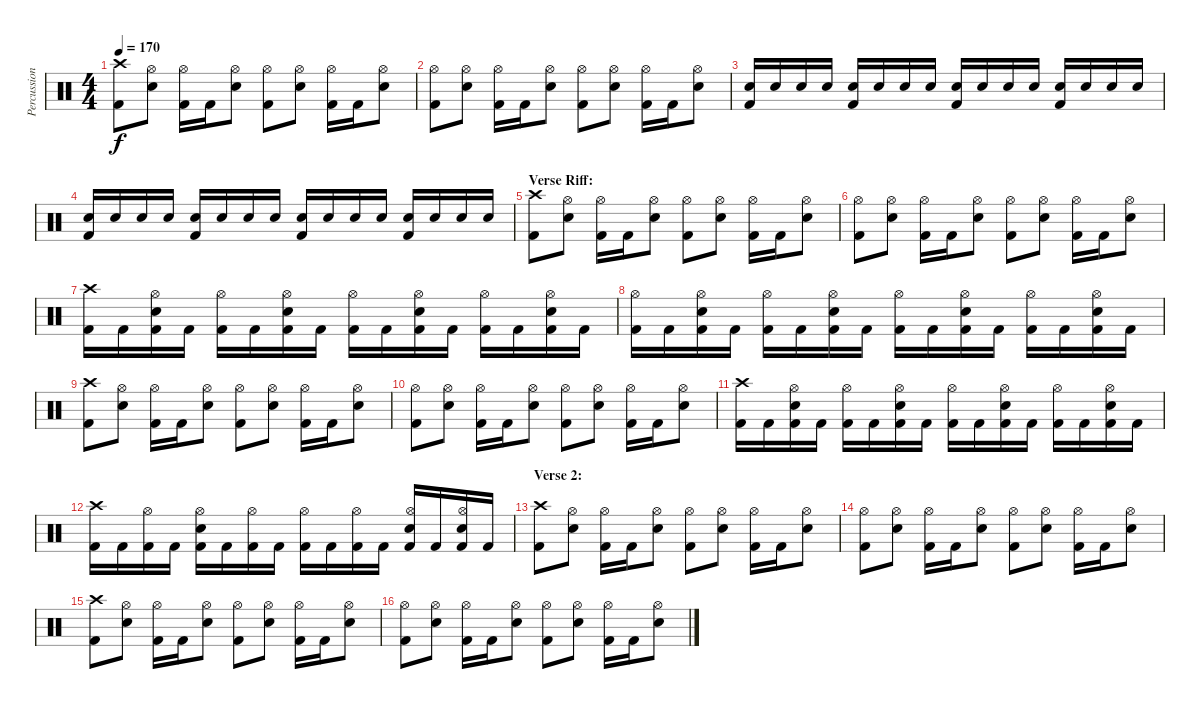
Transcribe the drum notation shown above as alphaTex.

\track ("Percussion" "Percussion") {instrument percussion}
\staff {score}
\articulation defaults
\ts (4 4)
\tempo 170
\clef neutral
\ks c
("Crash high (hit)" "Kick (hit) 2").8{dy f} ("Hi-Hat (open)" "Electric Snare (hit)").8 ("Hi-Hat (open)" "Kick (hit) 2").16 "Kick (hit) 2".16 ("Hi-Hat (open)" "Electric Snare (hit)").8 ("Hi-Hat (open)" "Kick (hit) 2").8 ("Hi-Hat (open)" "Electric Snare (hit)").8 ("Hi-Hat (open)" "Kick (hit) 2").16 "Kick (hit) 2".16 ("Hi-Hat (open)" "Electric Snare (hit)").8 |
("Hi-Hat (open)" "Kick (hit) 2").8 ("Hi-Hat (open)" "Electric Snare (hit)").8 ("Hi-Hat (open)" "Kick (hit) 2").16 "Kick (hit) 2".16 ("Hi-Hat (open)" "Electric Snare (hit)").8 ("Hi-Hat (open)" "Kick (hit) 2").8 ("Hi-Hat (open)" "Electric Snare (hit)").8 ("Hi-Hat (open)" "Kick (hit) 2").16 "Kick (hit) 2".16 ("Hi-Hat (open)" "Electric Snare (hit)").8 |
("Electric Snare (hit)" "Kick (hit) 2").16 "Electric Snare (hit)".16 "Electric Snare (hit)".16 "Electric Snare (hit)".16 ("Electric Snare (hit)" "Kick (hit) 2").16 "Electric Snare (hit)".16 "Electric Snare (hit)".16 "Electric Snare (hit)".16 ("Electric Snare (hit)" "Kick (hit) 2").16 "Electric Snare (hit)".16 "Electric Snare (hit)".16 "Electric Snare (hit)".16 ("Electric Snare (hit)" "Kick (hit) 2").16 "Electric Snare (hit)".16 "Electric Snare (hit)".16 "Electric Snare (hit)".16 |
("Electric Snare (hit)" "Kick (hit) 2").16 "Electric Snare (hit)".16 "Electric Snare (hit)".16 "Electric Snare (hit)".16 ("Electric Snare (hit)" "Kick (hit) 2").16 "Electric Snare (hit)".16 "Electric Snare (hit)".16 "Electric Snare (hit)".16 ("Electric Snare (hit)" "Kick (hit) 2").16 "Electric Snare (hit)".16 "Electric Snare (hit)".16 "Electric Snare (hit)".16 ("Electric Snare (hit)" "Kick (hit) 2").16 "Electric Snare (hit)".16 "Electric Snare (hit)".16 "Electric Snare (hit)".16 |
\section ("" "Verse Riff:")
("Crash high (hit)" "Kick (hit) 2").8 ("Hi-Hat (open)" "Electric Snare (hit)").8 ("Hi-Hat (open)" "Kick (hit) 2").16 "Kick (hit) 2".16 ("Hi-Hat (open)" "Electric Snare (hit)").8 ("Hi-Hat (open)" "Kick (hit) 2").8 ("Hi-Hat (open)" "Electric Snare (hit)").8 ("Hi-Hat (open)" "Kick (hit) 2").16 "Kick (hit) 2".16 ("Hi-Hat (open)" "Electric Snare (hit)").8 |
("Hi-Hat (open)" "Kick (hit) 2").8 ("Hi-Hat (open)" "Electric Snare (hit)").8 ("Hi-Hat (open)" "Kick (hit) 2").16 "Kick (hit) 2".16 ("Hi-Hat (open)" "Electric Snare (hit)").8 ("Hi-Hat (open)" "Kick (hit) 2").8 ("Hi-Hat (open)" "Electric Snare (hit)").8 ("Hi-Hat (open)" "Kick (hit) 2").16 "Kick (hit) 2".16 ("Hi-Hat (open)" "Electric Snare (hit)").8 |
("Crash high (hit)" "Kick (hit) 2").16 "Kick (hit) 2".16 ("Hi-Hat (open)" "Electric Snare (hit)" "Kick (hit) 2").16 "Kick (hit) 2".16 ("Hi-Hat (open)" "Kick (hit) 2").16 "Kick (hit) 2".16 ("Hi-Hat (open)" "Electric Snare (hit)" "Kick (hit) 2").16 "Kick (hit) 2".16 ("Hi-Hat (open)" "Kick (hit) 2").16 "Kick (hit) 2".16 ("Hi-Hat (open)" "Electric Snare (hit)" "Kick (hit) 2").16 "Kick (hit) 2".16 ("Hi-Hat (open)" "Kick (hit) 2").16 "Kick (hit) 2".16 ("Hi-Hat (open)" "Electric Snare (hit)" "Kick (hit) 2").16 "Kick (hit) 2".16 |
("Hi-Hat (open)" "Kick (hit) 2").16 "Kick (hit) 2".16 ("Hi-Hat (open)" "Electric Snare (hit)" "Kick (hit) 2").16 "Kick (hit) 2".16 ("Hi-Hat (open)" "Kick (hit) 2").16 "Kick (hit) 2".16 ("Hi-Hat (open)" "Electric Snare (hit)" "Kick (hit) 2").16 "Kick (hit) 2".16 ("Hi-Hat (open)" "Kick (hit) 2").16 "Kick (hit) 2".16 ("Hi-Hat (open)" "Electric Snare (hit)" "Kick (hit) 2").16 "Kick (hit) 2".16 ("Hi-Hat (open)" "Kick (hit) 2").16 "Kick (hit) 2".16 ("Hi-Hat (open)" "Electric Snare (hit)" "Kick (hit) 2").16 "Kick (hit) 2".16 |
("Crash high (hit)" "Kick (hit) 2").8 ("Hi-Hat (open)" "Electric Snare (hit)").8 ("Hi-Hat (open)" "Kick (hit) 2").16 "Kick (hit) 2".16 ("Hi-Hat (open)" "Electric Snare (hit)").8 ("Hi-Hat (open)" "Kick (hit) 2").8 ("Hi-Hat (open)" "Electric Snare (hit)").8 ("Hi-Hat (open)" "Kick (hit) 2").16 "Kick (hit) 2".16 ("Hi-Hat (open)" "Electric Snare (hit)").8 |
("Hi-Hat (open)" "Kick (hit) 2").8 ("Hi-Hat (open)" "Electric Snare (hit)").8 ("Hi-Hat (open)" "Kick (hit) 2").16 "Kick (hit) 2".16 ("Hi-Hat (open)" "Electric Snare (hit)").8 ("Hi-Hat (open)" "Kick (hit) 2").8 ("Hi-Hat (open)" "Electric Snare (hit)").8 ("Hi-Hat (open)" "Kick (hit) 2").16 "Kick (hit) 2".16 ("Hi-Hat (open)" "Electric Snare (hit)").8 |
("Crash high (hit)" "Kick (hit) 2").16 "Kick (hit) 2".16 ("Hi-Hat (open)" "Electric Snare (hit)" "Kick (hit) 2").16 "Kick (hit) 2".16 ("Hi-Hat (open)" "Kick (hit) 2").16 "Kick (hit) 2".16 ("Hi-Hat (open)" "Electric Snare (hit)" "Kick (hit) 2").16 "Kick (hit) 2".16 ("Hi-Hat (open)" "Kick (hit) 2").16 "Kick (hit) 2".16 ("Hi-Hat (open)" "Electric Snare (hit)" "Kick (hit) 2").16 "Kick (hit) 2".16 ("Hi-Hat (open)" "Kick (hit) 2").16 "Kick (hit) 2".16 ("Hi-Hat (open)" "Electric Snare (hit)" "Kick (hit) 2").16 "Kick (hit) 2".16 |
("Crash high (hit)" "Kick (hit) 2").16 "Kick (hit) 2".16 ("Hi-Hat (open)" "Kick (hit) 2").16 "Kick (hit) 2".16 ("Hi-Hat (open)" "Electric Snare (hit)" "Kick (hit) 2").16 "Kick (hit) 2".16 ("Hi-Hat (open)" "Kick (hit) 2").16 "Kick (hit) 2".16 ("Hi-Hat (open)" "Kick (hit) 2").16 "Kick (hit) 2".16 ("Hi-Hat (open)" "Kick (hit) 2").16 "Kick (hit) 2".16 ("Hi-Hat (open)" "Electric Snare (hit)" "Kick (hit) 2").16 "Kick (hit) 2".16 ("Hi-Hat (open)" "Electric Snare (hit)" "Kick (hit) 2").16 "Kick (hit) 2".16 |
\section ("" "Verse 2:")
("Crash high (hit)" "Kick (hit) 2").8 ("Hi-Hat (open)" "Electric Snare (hit)").8 ("Hi-Hat (open)" "Kick (hit) 2").16 "Kick (hit) 2".16 ("Hi-Hat (open)" "Electric Snare (hit)").8 ("Hi-Hat (open)" "Kick (hit) 2").8 ("Hi-Hat (open)" "Electric Snare (hit)").8 ("Hi-Hat (open)" "Kick (hit) 2").16 "Kick (hit) 2".16 ("Hi-Hat (open)" "Electric Snare (hit)").8 |
("Hi-Hat (open)" "Kick (hit) 2").8 ("Hi-Hat (open)" "Electric Snare (hit)").8 ("Hi-Hat (open)" "Kick (hit) 2").16 "Kick (hit) 2".16 ("Hi-Hat (open)" "Electric Snare (hit)").8 ("Hi-Hat (open)" "Kick (hit) 2").8 ("Hi-Hat (open)" "Electric Snare (hit)").8 ("Hi-Hat (open)" "Kick (hit) 2").16 "Kick (hit) 2".16 ("Hi-Hat (open)" "Electric Snare (hit)").8 |
("Crash high (hit)" "Kick (hit) 2").8 ("Hi-Hat (open)" "Electric Snare (hit)").8 ("Hi-Hat (open)" "Kick (hit) 2").16 "Kick (hit) 2".16 ("Hi-Hat (open)" "Electric Snare (hit)").8 ("Hi-Hat (open)" "Kick (hit) 2").8 ("Hi-Hat (open)" "Electric Snare (hit)").8 ("Hi-Hat (open)" "Kick (hit) 2").16 "Kick (hit) 2".16 ("Hi-Hat (open)" "Electric Snare (hit)").8 |
("Hi-Hat (open)" "Kick (hit) 2").8 ("Hi-Hat (open)" "Electric Snare (hit)").8 ("Hi-Hat (open)" "Kick (hit) 2").16 "Kick (hit) 2".16 ("Hi-Hat (open)" "Electric Snare (hit)").8 ("Hi-Hat (open)" "Kick (hit) 2").8 ("Hi-Hat (open)" "Electric Snare (hit)").8 ("Hi-Hat (open)" "Kick (hit) 2").16 "Kick (hit) 2".16 ("Hi-Hat (open)" "Electric Snare (hit)").8
